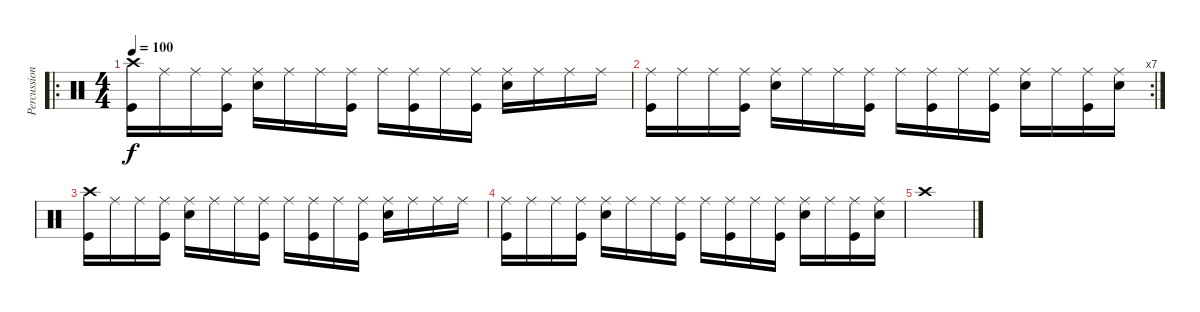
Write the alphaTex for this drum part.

\track ("Percussion" "Percussion") {instrument percussion}
\staff {score}
\articulation defaults
\ro
\ts (4 4)
\tempo 100
\clef neutral
\ks c
("Crash high (hit)" "Kick (hit)").16{dy f} "Ride (middle)".16 "Ride (middle)".16 ("Ride (middle)" "Kick (hit)").16 ("Ride (middle)" "Snare (hit) 2").16 "Ride (middle)".16 "Ride (middle)".16 ("Ride (middle)" "Kick (hit)").16 "Ride (middle)".16 ("Ride (middle)" "Kick (hit)").16 "Ride (middle)".16 ("Ride (middle)" "Kick (hit)").16 ("Ride (middle)" "Snare (hit) 2").16 "Ride (middle)".16 "Ride (middle)".16 "Ride (middle)".16 |
\rc 7
("Ride (middle)" "Kick (hit)").16 "Ride (middle)".16 "Ride (middle)".16 ("Ride (middle)" "Kick (hit)").16 ("Ride (middle)" "Snare (hit) 2").16 "Ride (middle)".16 "Ride (middle)".16 ("Ride (middle)" "Kick (hit)").16 "Ride (middle)".16 ("Ride (middle)" "Kick (hit)").16 "Ride (middle)".16 ("Ride (middle)" "Kick (hit)").16 ("Ride (middle)" "Snare (hit) 2").16 "Ride (middle)".16 ("Ride (middle)" "Kick (hit)").16 ("Ride (middle)" "Snare (hit) 2").16 |
("Crash high (hit)" "Kick (hit)").16 "Ride (middle)".16 "Ride (middle)".16 ("Ride (middle)" "Kick (hit)").16 ("Ride (middle)" "Snare (hit) 2").16 "Ride (middle)".16 "Ride (middle)".16 ("Ride (middle)" "Kick (hit)").16 "Ride (middle)".16 ("Ride (middle)" "Kick (hit)").16 "Ride (middle)".16 ("Ride (middle)" "Kick (hit)").16 ("Ride (middle)" "Snare (hit) 2").16 "Ride (middle)".16 "Ride (middle)".16 "Ride (middle)".16 |
("Ride (middle)" "Kick (hit)").16 "Ride (middle)".16 "Ride (middle)".16 ("Ride (middle)" "Kick (hit)").16 ("Ride (middle)" "Snare (hit) 2").16 "Ride (middle)".16 "Ride (middle)".16 ("Ride (middle)" "Kick (hit)").16 "Ride (middle)".16 ("Ride (middle)" "Kick (hit)").16 "Ride (middle)".16 ("Ride (middle)" "Kick (hit)").16 ("Ride (middle)" "Snare (hit) 2").16 "Ride (middle)".16 ("Ride (middle)" "Kick (hit)").16 ("Ride (middle)" "Snare (hit) 2").16 |
"Crash high (hit)".1
